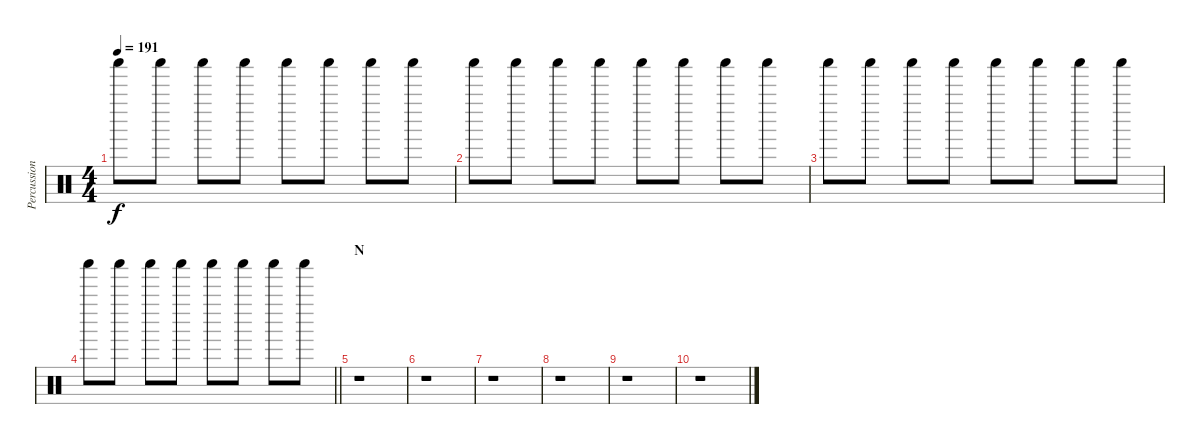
\track ("Percussion" "Percussion") {instrument percussion}
\staff {score}
\articulation defaults
\ts (4 4)
\tempo 191
\clef neutral
\ks c "Shaker (hit)".8{dy f} "Shaker (hit)".8 "Shaker (hit)".8 "Shaker (hit)".8 "Shaker (hit)".8 "Shaker (hit)".8 "Shaker (hit)".8 "Shaker (hit)".8
|
"Shaker (hit)".8 "Shaker (hit)".8 "Shaker (hit)".8 "Shaker (hit)".8 "Shaker (hit)".8 "Shaker (hit)".8 "Shaker (hit)".8 "Shaker (hit)".8 |
"Shaker (hit)".8 "Shaker (hit)".8 "Shaker (hit)".8 "Shaker (hit)".8 "Shaker (hit)".8 "Shaker (hit)".8 "Shaker (hit)".8 "Shaker (hit)".8 |
\barLineRight lightlight "Shaker (hit)".8 "Shaker (hit)".8 "Shaker (hit)".8 "Shaker (hit)".8 "Shaker (hit)".8 "Shaker (hit)".8 "Shaker (hit)".8 "Shaker (hit)".8
|
\section ("" "N")
r.1 |
r.1 |
r.1 |
r.1 |
r.1 |
r.1
